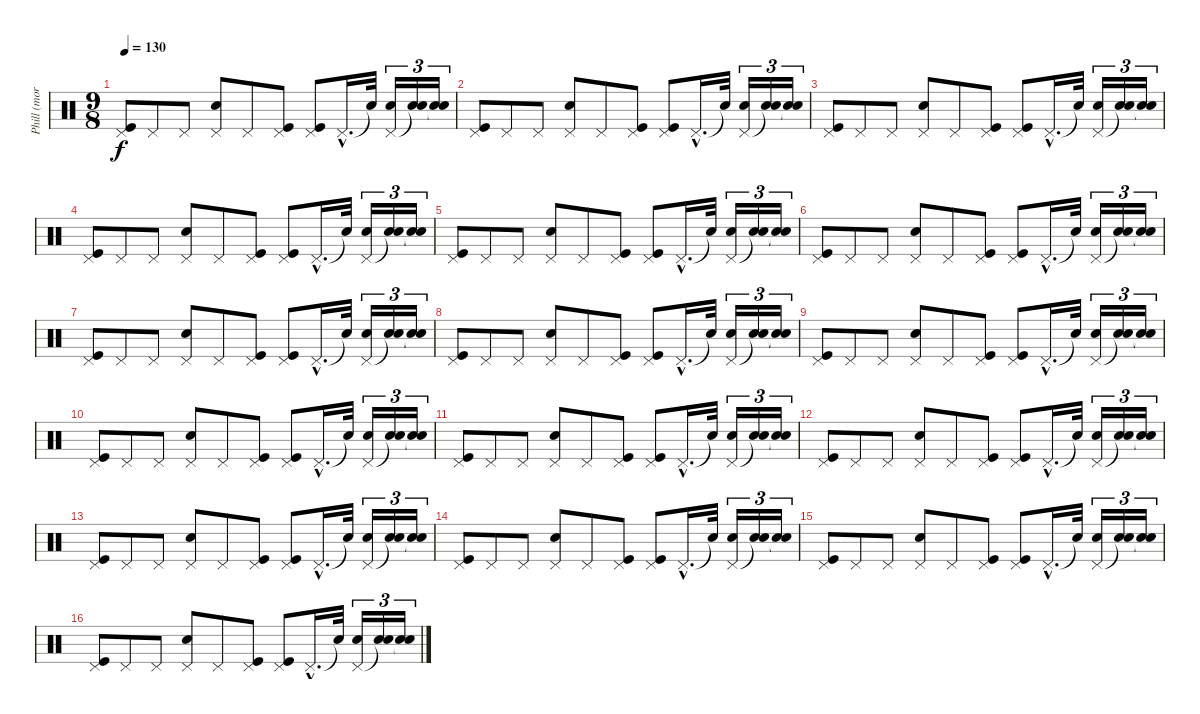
\track ("Phill (mornig bell)" "Phill (mor") {instrument percussion}
\staff {score}
\articulation defaults
\ts (9 8)
\tempo 130
\clef neutral
\ks c
("Pedal Hi-Hat (hit)" "Kick (hit)").8{dy f} "Pedal Hi-Hat (hit)".8 "Pedal Hi-Hat (hit)".8 ("Pedal Hi-Hat (hit)" "Snare (hit) 2").8 "Pedal Hi-Hat (hit)".8 ("Pedal Hi-Hat (hit)" "Kick (hit)").8 ("Pedal Hi-Hat (hit)" "Kick (hit)").8 "Pedal Hi-Hat (hit)"{hac}.16{d} "Snare (hit)"{t}.32 ("Pedal Hi-Hat (hit)" "Snare (hit) 2").16{tu (3 2)} ("Snare (hit)"{t} "Snare (hit) 2").16{tu (3 2)} ("Snare (hit)"{t} "Snare (hit) 2").16{tu (3 2)} |
("Pedal Hi-Hat (hit)" "Kick (hit)").8 "Pedal Hi-Hat (hit)".8 "Pedal Hi-Hat (hit)".8 ("Pedal Hi-Hat (hit)" "Snare (hit) 2").8 "Pedal Hi-Hat (hit)".8 ("Pedal Hi-Hat (hit)" "Kick (hit)").8 ("Pedal Hi-Hat (hit)" "Kick (hit)").8 "Pedal Hi-Hat (hit)"{hac}.16{d} "Snare (hit)"{t}.32 ("Pedal Hi-Hat (hit)" "Snare (hit) 2").16{tu (3 2)} ("Snare (hit)"{t} "Snare (hit) 2").16{tu (3 2)} ("Snare (hit)"{t} "Snare (hit) 2").16{tu (3 2)} |
("Pedal Hi-Hat (hit)" "Kick (hit)").8 "Pedal Hi-Hat (hit)".8 "Pedal Hi-Hat (hit)".8 ("Pedal Hi-Hat (hit)" "Snare (hit) 2").8 "Pedal Hi-Hat (hit)".8 ("Pedal Hi-Hat (hit)" "Kick (hit)").8 ("Pedal Hi-Hat (hit)" "Kick (hit)").8 "Pedal Hi-Hat (hit)"{hac}.16{d} "Snare (hit)"{t}.32 ("Pedal Hi-Hat (hit)" "Snare (hit) 2").16{tu (3 2)} ("Snare (hit)"{t} "Snare (hit) 2").16{tu (3 2)} ("Snare (hit)"{t} "Snare (hit) 2").16{tu (3 2)} |
("Pedal Hi-Hat (hit)" "Kick (hit)").8 "Pedal Hi-Hat (hit)".8 "Pedal Hi-Hat (hit)".8 ("Pedal Hi-Hat (hit)" "Snare (hit) 2").8 "Pedal Hi-Hat (hit)".8 ("Pedal Hi-Hat (hit)" "Kick (hit)").8 ("Pedal Hi-Hat (hit)" "Kick (hit)").8 "Pedal Hi-Hat (hit)"{hac}.16{d} "Snare (hit)"{t}.32 ("Pedal Hi-Hat (hit)" "Snare (hit) 2").16{tu (3 2)} ("Snare (hit)"{t} "Snare (hit) 2").16{tu (3 2)} ("Snare (hit)"{t} "Snare (hit) 2").16{tu (3 2)} |
("Pedal Hi-Hat (hit)" "Kick (hit)").8 "Pedal Hi-Hat (hit)".8 "Pedal Hi-Hat (hit)".8 ("Pedal Hi-Hat (hit)" "Snare (hit) 2").8 "Pedal Hi-Hat (hit)".8 ("Pedal Hi-Hat (hit)" "Kick (hit)").8 ("Pedal Hi-Hat (hit)" "Kick (hit)").8 "Pedal Hi-Hat (hit)"{hac}.16{d} "Snare (hit)"{t}.32 ("Pedal Hi-Hat (hit)" "Snare (hit) 2").16{tu (3 2)} ("Snare (hit)"{t} "Snare (hit) 2").16{tu (3 2)} ("Snare (hit)"{t} "Snare (hit) 2").16{tu (3 2)} |
("Pedal Hi-Hat (hit)" "Kick (hit)").8 "Pedal Hi-Hat (hit)".8 "Pedal Hi-Hat (hit)".8 ("Pedal Hi-Hat (hit)" "Snare (hit) 2").8 "Pedal Hi-Hat (hit)".8 ("Pedal Hi-Hat (hit)" "Kick (hit)").8 ("Pedal Hi-Hat (hit)" "Kick (hit)").8 "Pedal Hi-Hat (hit)"{hac}.16{d} "Snare (hit)"{t}.32 ("Pedal Hi-Hat (hit)" "Snare (hit) 2").16{tu (3 2)} ("Snare (hit)"{t} "Snare (hit) 2").16{tu (3 2)} ("Snare (hit)"{t} "Snare (hit) 2").16{tu (3 2)} |
("Pedal Hi-Hat (hit)" "Kick (hit)").8 "Pedal Hi-Hat (hit)".8 "Pedal Hi-Hat (hit)".8 ("Pedal Hi-Hat (hit)" "Snare (hit) 2").8 "Pedal Hi-Hat (hit)".8 ("Pedal Hi-Hat (hit)" "Kick (hit)").8 ("Pedal Hi-Hat (hit)" "Kick (hit)").8 "Pedal Hi-Hat (hit)"{hac}.16{d} "Snare (hit)"{t}.32 ("Pedal Hi-Hat (hit)" "Snare (hit) 2").16{tu (3 2)} ("Snare (hit)"{t} "Snare (hit) 2").16{tu (3 2)} ("Snare (hit)"{t} "Snare (hit) 2").16{tu (3 2)} |
("Pedal Hi-Hat (hit)" "Kick (hit)").8 "Pedal Hi-Hat (hit)".8 "Pedal Hi-Hat (hit)".8 ("Pedal Hi-Hat (hit)" "Snare (hit) 2").8 "Pedal Hi-Hat (hit)".8 ("Pedal Hi-Hat (hit)" "Kick (hit)").8 ("Pedal Hi-Hat (hit)" "Kick (hit)").8 "Pedal Hi-Hat (hit)"{hac}.16{d} "Snare (hit)"{t}.32 ("Pedal Hi-Hat (hit)" "Snare (hit) 2").16{tu (3 2)} ("Snare (hit)"{t} "Snare (hit) 2").16{tu (3 2)} ("Snare (hit)"{t} "Snare (hit) 2").16{tu (3 2)} |
("Pedal Hi-Hat (hit)" "Kick (hit)").8 "Pedal Hi-Hat (hit)".8 "Pedal Hi-Hat (hit)".8 ("Pedal Hi-Hat (hit)" "Snare (hit) 2").8 "Pedal Hi-Hat (hit)".8 ("Pedal Hi-Hat (hit)" "Kick (hit)").8 ("Pedal Hi-Hat (hit)" "Kick (hit)").8 "Pedal Hi-Hat (hit)"{hac}.16{d} "Snare (hit)"{t}.32 ("Pedal Hi-Hat (hit)" "Snare (hit) 2").16{tu (3 2)} ("Snare (hit)"{t} "Snare (hit) 2").16{tu (3 2)} ("Snare (hit)"{t} "Snare (hit) 2").16{tu (3 2)} |
("Pedal Hi-Hat (hit)" "Kick (hit)").8 "Pedal Hi-Hat (hit)".8 "Pedal Hi-Hat (hit)".8 ("Pedal Hi-Hat (hit)" "Snare (hit) 2").8 "Pedal Hi-Hat (hit)".8 ("Pedal Hi-Hat (hit)" "Kick (hit)").8 ("Pedal Hi-Hat (hit)" "Kick (hit)").8 "Pedal Hi-Hat (hit)"{hac}.16{d} "Snare (hit)"{t}.32 ("Pedal Hi-Hat (hit)" "Snare (hit) 2").16{tu (3 2)} ("Snare (hit)"{t} "Snare (hit) 2").16{tu (3 2)} ("Snare (hit)"{t} "Snare (hit) 2").16{tu (3 2)} |
("Pedal Hi-Hat (hit)" "Kick (hit)").8 "Pedal Hi-Hat (hit)".8 "Pedal Hi-Hat (hit)".8 ("Pedal Hi-Hat (hit)" "Snare (hit) 2").8 "Pedal Hi-Hat (hit)".8 ("Pedal Hi-Hat (hit)" "Kick (hit)").8 ("Pedal Hi-Hat (hit)" "Kick (hit)").8 "Pedal Hi-Hat (hit)"{hac}.16{d} "Snare (hit)"{t}.32 ("Pedal Hi-Hat (hit)" "Snare (hit) 2").16{tu (3 2)} ("Snare (hit)"{t} "Snare (hit) 2").16{tu (3 2)} ("Snare (hit)"{t} "Snare (hit) 2").16{tu (3 2)} |
("Pedal Hi-Hat (hit)" "Kick (hit)").8 "Pedal Hi-Hat (hit)".8 "Pedal Hi-Hat (hit)".8 ("Pedal Hi-Hat (hit)" "Snare (hit) 2").8 "Pedal Hi-Hat (hit)".8 ("Pedal Hi-Hat (hit)" "Kick (hit)").8 ("Pedal Hi-Hat (hit)" "Kick (hit)").8 "Pedal Hi-Hat (hit)"{hac}.16{d} "Snare (hit)"{t}.32 ("Pedal Hi-Hat (hit)" "Snare (hit) 2").16{tu (3 2)} ("Snare (hit)"{t} "Snare (hit) 2").16{tu (3 2)} ("Snare (hit)"{t} "Snare (hit) 2").16{tu (3 2)} |
("Pedal Hi-Hat (hit)" "Kick (hit)").8 "Pedal Hi-Hat (hit)".8 "Pedal Hi-Hat (hit)".8 ("Pedal Hi-Hat (hit)" "Snare (hit) 2").8 "Pedal Hi-Hat (hit)".8 ("Pedal Hi-Hat (hit)" "Kick (hit)").8 ("Pedal Hi-Hat (hit)" "Kick (hit)").8 "Pedal Hi-Hat (hit)"{hac}.16{d} "Snare (hit)"{t}.32 ("Pedal Hi-Hat (hit)" "Snare (hit) 2").16{tu (3 2)} ("Snare (hit)"{t} "Snare (hit) 2").16{tu (3 2)} ("Snare (hit)"{t} "Snare (hit) 2").16{tu (3 2)} |
("Pedal Hi-Hat (hit)" "Kick (hit)").8 "Pedal Hi-Hat (hit)".8 "Pedal Hi-Hat (hit)".8 ("Pedal Hi-Hat (hit)" "Snare (hit) 2").8 "Pedal Hi-Hat (hit)".8 ("Pedal Hi-Hat (hit)" "Kick (hit)").8 ("Pedal Hi-Hat (hit)" "Kick (hit)").8 "Pedal Hi-Hat (hit)"{hac}.16{d} "Snare (hit)"{t}.32 ("Pedal Hi-Hat (hit)" "Snare (hit) 2").16{tu (3 2)} ("Snare (hit)"{t} "Snare (hit) 2").16{tu (3 2)} ("Snare (hit)"{t} "Snare (hit) 2").16{tu (3 2)} |
("Pedal Hi-Hat (hit)" "Kick (hit)").8 "Pedal Hi-Hat (hit)".8 "Pedal Hi-Hat (hit)".8 ("Pedal Hi-Hat (hit)" "Snare (hit) 2").8 "Pedal Hi-Hat (hit)".8 ("Pedal Hi-Hat (hit)" "Kick (hit)").8 ("Pedal Hi-Hat (hit)" "Kick (hit)").8 "Pedal Hi-Hat (hit)"{hac}.16{d} "Snare (hit)"{t}.32 ("Pedal Hi-Hat (hit)" "Snare (hit) 2").16{tu (3 2)} ("Snare (hit)"{t} "Snare (hit) 2").16{tu (3 2)} ("Snare (hit)"{t} "Snare (hit) 2").16{tu (3 2)} |
("Pedal Hi-Hat (hit)" "Kick (hit)").8 "Pedal Hi-Hat (hit)".8 "Pedal Hi-Hat (hit)".8 ("Pedal Hi-Hat (hit)" "Snare (hit) 2").8 "Pedal Hi-Hat (hit)".8 ("Pedal Hi-Hat (hit)" "Kick (hit)").8 ("Pedal Hi-Hat (hit)" "Kick (hit)").8 "Pedal Hi-Hat (hit)"{hac}.16{d} "Snare (hit)"{t}.32 ("Pedal Hi-Hat (hit)" "Snare (hit) 2").16{tu (3 2)} ("Snare (hit)"{t} "Snare (hit) 2").16{tu (3 2)} ("Snare (hit)"{t} "Snare (hit) 2").16{tu (3 2)}
